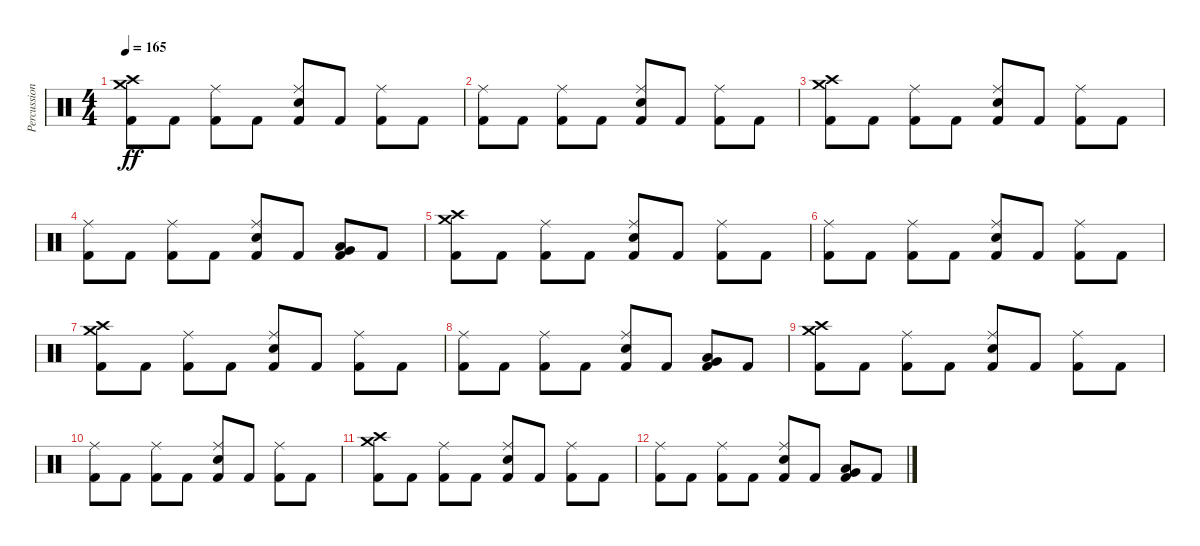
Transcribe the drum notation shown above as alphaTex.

\track ("Percussion" "Percussion") {instrument percussion}
\staff {score}
\articulation defaults
\ts (4 4)
\tempo 165
\clef neutral
\ks c
("Kick (hit) 2" "Crash medium (hit)" "Crash high (hit)").8{dy ff} "Kick (hit) 2".8 ("Kick (hit) 2" "Ride (middle)").8 "Kick (hit) 2".8 ("Kick (hit) 2" "Electric Snare (hit)" "Ride (middle)").8 "Kick (hit) 2".8 ("Kick (hit) 2" "Ride (middle)").8 "Kick (hit) 2".8 |
("Kick (hit) 2" "Ride (middle)").8 "Kick (hit) 2".8 ("Kick (hit) 2" "Ride (middle)").8 "Kick (hit) 2".8 ("Kick (hit) 2" "Electric Snare (hit)" "Ride (middle)").8 "Kick (hit) 2".8 ("Kick (hit) 2" "Ride (middle)").8 "Kick (hit) 2".8 |
("Kick (hit) 2" "Crash medium (hit)" "Crash high (hit)").8 "Kick (hit) 2".8 ("Kick (hit) 2" "Ride (middle)").8 "Kick (hit) 2".8 ("Kick (hit) 2" "Electric Snare (hit)" "Ride (middle)").8 "Kick (hit) 2".8 ("Kick (hit) 2" "Ride (middle)").8 "Kick (hit) 2".8 |
("Kick (hit) 2" "Ride (middle)").8 "Kick (hit) 2".8 ("Kick (hit) 2" "Ride (middle)").8 "Kick (hit) 2".8 ("Kick (hit) 2" "Electric Snare (hit)" "Ride (middle)").8 "Kick (hit) 2".8 ("Kick (hit) 2" "Very Low Tom (hit)" "Low Tom (hit)").8 "Kick (hit) 2".8 |
("Kick (hit) 2" "Crash medium (hit)" "Crash high (hit)").8 "Kick (hit) 2".8 ("Kick (hit) 2" "Ride (middle)").8 "Kick (hit) 2".8 ("Kick (hit) 2" "Electric Snare (hit)" "Ride (middle)").8 "Kick (hit) 2".8 ("Kick (hit) 2" "Ride (middle)").8 "Kick (hit) 2".8 |
("Kick (hit) 2" "Ride (middle)").8 "Kick (hit) 2".8 ("Kick (hit) 2" "Ride (middle)").8 "Kick (hit) 2".8 ("Kick (hit) 2" "Electric Snare (hit)" "Ride (middle)").8 "Kick (hit) 2".8 ("Kick (hit) 2" "Ride (middle)").8 "Kick (hit) 2".8 |
("Kick (hit) 2" "Crash medium (hit)" "Crash high (hit)").8 "Kick (hit) 2".8 ("Kick (hit) 2" "Ride (middle)").8 "Kick (hit) 2".8 ("Kick (hit) 2" "Electric Snare (hit)" "Ride (middle)").8 "Kick (hit) 2".8 ("Kick (hit) 2" "Ride (middle)").8 "Kick (hit) 2".8 |
("Kick (hit) 2" "Ride (middle)").8 "Kick (hit) 2".8 ("Kick (hit) 2" "Ride (middle)").8 "Kick (hit) 2".8 ("Kick (hit) 2" "Electric Snare (hit)" "Ride (middle)").8 "Kick (hit) 2".8 ("Kick (hit) 2" "Very Low Tom (hit)" "Low Tom (hit)").8 "Kick (hit) 2".8 |
("Kick (hit) 2" "Crash medium (hit)" "Crash high (hit)").8 "Kick (hit) 2".8 ("Kick (hit) 2" "Ride (middle)").8 "Kick (hit) 2".8 ("Kick (hit) 2" "Electric Snare (hit)" "Ride (middle)").8 "Kick (hit) 2".8 ("Kick (hit) 2" "Ride (middle)").8 "Kick (hit) 2".8 |
("Kick (hit) 2" "Ride (middle)").8 "Kick (hit) 2".8 ("Kick (hit) 2" "Ride (middle)").8 "Kick (hit) 2".8 ("Kick (hit) 2" "Electric Snare (hit)" "Ride (middle)").8 "Kick (hit) 2".8 ("Kick (hit) 2" "Ride (middle)").8 "Kick (hit) 2".8 |
("Kick (hit) 2" "Crash medium (hit)" "Crash high (hit)").8 "Kick (hit) 2".8 ("Kick (hit) 2" "Ride (middle)").8 "Kick (hit) 2".8 ("Kick (hit) 2" "Electric Snare (hit)" "Ride (middle)").8 "Kick (hit) 2".8 ("Kick (hit) 2" "Ride (middle)").8 "Kick (hit) 2".8 |
("Kick (hit) 2" "Ride (middle)").8 "Kick (hit) 2".8 ("Kick (hit) 2" "Ride (middle)").8 "Kick (hit) 2".8 ("Kick (hit) 2" "Electric Snare (hit)" "Ride (middle)").8 "Kick (hit) 2".8 ("Kick (hit) 2" "Very Low Tom (hit)" "Low Tom (hit)").8 "Kick (hit) 2".8
